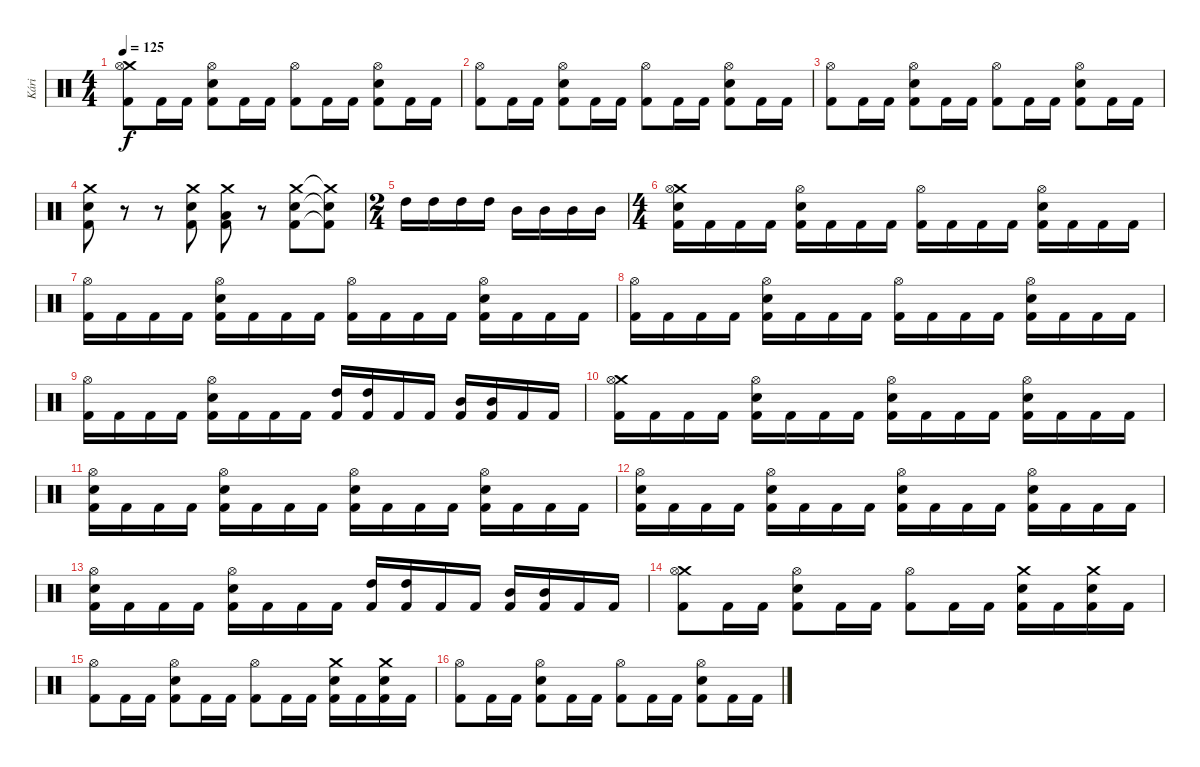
\track ("Kári" "Kári") {instrument percussion}
\staff {score}
\articulation defaults
\ts (4 4)
\tempo 125
\clef neutral
\ks c
("Crash medium (hit)" "Hi-Hat (open)" "Kick (hit) 2").8{dy f} "Kick (hit) 2".16 "Kick (hit) 2".16 ("Hi-Hat (open)" "Snare (hit) 2" "Kick (hit) 2").8 "Kick (hit) 2".16 "Kick (hit) 2".16 ("Hi-Hat (open)" "Kick (hit) 2").8 "Kick (hit) 2".16 "Kick (hit) 2".16 ("Hi-Hat (open)" "Snare (hit) 2" "Kick (hit) 2").8 "Kick (hit) 2".16 "Kick (hit) 2".16 |
("Hi-Hat (open)" "Kick (hit) 2").8 "Kick (hit) 2".16 "Kick (hit) 2".16 ("Hi-Hat (open)" "Snare (hit) 2" "Kick (hit) 2").8 "Kick (hit) 2".16 "Kick (hit) 2".16 ("Hi-Hat (open)" "Kick (hit) 2").8 "Kick (hit) 2".16 "Kick (hit) 2".16 ("Hi-Hat (open)" "Snare (hit) 2" "Kick (hit) 2").8 "Kick (hit) 2".16 "Kick (hit) 2".16 |
("Hi-Hat (open)" "Kick (hit) 2").8 "Kick (hit) 2".16 "Kick (hit) 2".16 ("Hi-Hat (open)" "Snare (hit) 2" "Kick (hit) 2").8 "Kick (hit) 2".16 "Kick (hit) 2".16 ("Hi-Hat (open)" "Kick (hit) 2").8 "Kick (hit) 2".16 "Kick (hit) 2".16 ("Hi-Hat (open)" "Snare (hit) 2" "Kick (hit) 2").8 "Kick (hit) 2".16 "Kick (hit) 2".16 |
("Crash medium (hit)" "Snare (hit) 2" "Kick (hit) 2").8 r.8 r.8 ("Crash medium (hit)" "Snare (hit) 2" "Kick (hit) 2").8 ("Crash medium (hit)" "Low Tom (hit)" "Kick (hit) 2").8 r.8 ("Crash medium (hit)" "Snare (hit) 2" "Kick (hit) 2").8 ("Crash medium (hit)"{t} "Snare (hit)"{t} "Kick (hit) 2"{t}).8 |
\ts (2 4)
"High Tom (hit)".16 "High Tom (hit)".16 "High Tom (hit)".16 "High Tom (hit)".16 "Mid Tom (hit)".16 "Mid Tom (hit)".16 "Mid Tom (hit)".16 "Mid Tom (hit)".16 |
\ts (4 4)
("Crash medium (hit)" "Hi-Hat (open)" "Snare (hit) 2" "Kick (hit) 2").16 "Kick (hit) 2".16 "Kick (hit) 2".16 "Kick (hit) 2".16 ("Hi-Hat (open)" "Snare (hit) 2" "Kick (hit) 2").16 "Kick (hit) 2".16 "Kick (hit) 2".16 "Kick (hit) 2".16 ("Hi-Hat (open)" "Kick (hit) 2").16 "Kick (hit) 2".16 "Kick (hit) 2".16 "Kick (hit) 2".16 ("Hi-Hat (open)" "Snare (hit) 2" "Kick (hit) 2").16 "Kick (hit) 2".16 "Kick (hit) 2".16 "Kick (hit) 2".16 |
("Hi-Hat (open)" "Kick (hit) 2").16 "Kick (hit) 2".16 "Kick (hit) 2".16 "Kick (hit) 2".16 ("Hi-Hat (open)" "Snare (hit) 2" "Kick (hit) 2").16 "Kick (hit) 2".16 "Kick (hit) 2".16 "Kick (hit) 2".16 ("Hi-Hat (open)" "Kick (hit) 2").16 "Kick (hit) 2".16 "Kick (hit) 2".16 "Kick (hit) 2".16 ("Hi-Hat (open)" "Snare (hit) 2" "Kick (hit) 2").16 "Kick (hit) 2".16 "Kick (hit) 2".16 "Kick (hit) 2".16 |
("Hi-Hat (open)" "Kick (hit) 2").16 "Kick (hit) 2".16 "Kick (hit) 2".16 "Kick (hit) 2".16 ("Hi-Hat (open)" "Snare (hit) 2" "Kick (hit) 2").16 "Kick (hit) 2".16 "Kick (hit) 2".16 "Kick (hit) 2".16 ("Hi-Hat (open)" "Kick (hit) 2").16 "Kick (hit) 2".16 "Kick (hit) 2".16 "Kick (hit) 2".16 ("Hi-Hat (open)" "Snare (hit) 2" "Kick (hit) 2").16 "Kick (hit) 2".16 "Kick (hit) 2".16 "Kick (hit) 2".16 |
("Hi-Hat (open)" "Kick (hit) 2").16 "Kick (hit) 2".16 "Kick (hit) 2".16 "Kick (hit) 2".16 ("Hi-Hat (open)" "Snare (hit) 2" "Kick (hit) 2").16 "Kick (hit) 2".16 "Kick (hit) 2".16 "Kick (hit) 2".16 ("High Tom (hit)" "Kick (hit) 2").16 ("High Tom (hit)" "Kick (hit) 2").16 "Kick (hit) 2".16 "Kick (hit) 2".16 ("Mid Tom (hit)" "Kick (hit) 2").16 ("Mid Tom (hit)" "Kick (hit) 2").16 "Kick (hit) 2".16 "Kick (hit) 2".16 |
("Crash medium (hit)" "Hi-Hat (open)" "Kick (hit) 2").16 "Kick (hit) 2".16 "Kick (hit) 2".16 "Kick (hit) 2".16 ("Hi-Hat (open)" "Snare (hit) 2" "Kick (hit) 2").16 "Kick (hit) 2".16 "Kick (hit) 2".16 "Kick (hit) 2".16 ("Hi-Hat (open)" "Snare (hit) 2" "Kick (hit) 2").16 "Kick (hit) 2".16 "Kick (hit) 2".16 "Kick (hit) 2".16 ("Hi-Hat (open)" "Snare (hit) 2" "Kick (hit) 2").16 "Kick (hit) 2".16 "Kick (hit) 2".16 "Kick (hit) 2".16 |
("Hi-Hat (open)" "Snare (hit) 2" "Kick (hit) 2").16 "Kick (hit) 2".16 "Kick (hit) 2".16 "Kick (hit) 2".16 ("Hi-Hat (open)" "Snare (hit) 2" "Kick (hit) 2").16 "Kick (hit) 2".16 "Kick (hit) 2".16 "Kick (hit) 2".16 ("Hi-Hat (open)" "Snare (hit) 2" "Kick (hit) 2").16 "Kick (hit) 2".16 "Kick (hit) 2".16 "Kick (hit) 2".16 ("Hi-Hat (open)" "Snare (hit) 2" "Kick (hit) 2").16 "Kick (hit) 2".16 "Kick (hit) 2".16 "Kick (hit) 2".16 |
("Hi-Hat (open)" "Snare (hit) 2" "Kick (hit) 2").16 "Kick (hit) 2".16 "Kick (hit) 2".16 "Kick (hit) 2".16 ("Hi-Hat (open)" "Snare (hit) 2" "Kick (hit) 2").16 "Kick (hit) 2".16 "Kick (hit) 2".16 "Kick (hit) 2".16 ("Hi-Hat (open)" "Snare (hit) 2" "Kick (hit) 2").16 "Kick (hit) 2".16 "Kick (hit) 2".16 "Kick (hit) 2".16 ("Hi-Hat (open)" "Snare (hit) 2" "Kick (hit) 2").16 "Kick (hit) 2".16 "Kick (hit) 2".16 "Kick (hit) 2".16 |
("Hi-Hat (open)" "Snare (hit) 2" "Kick (hit) 2").16 "Kick (hit) 2".16 "Kick (hit) 2".16 "Kick (hit) 2".16 ("Hi-Hat (open)" "Snare (hit) 2" "Kick (hit) 2").16 "Kick (hit) 2".16 "Kick (hit) 2".16 "Kick (hit) 2".16 ("High Tom (hit)" "Kick (hit) 2").16 ("High Tom (hit)" "Kick (hit) 2").16 "Kick (hit) 2".16 "Kick (hit) 2".16 ("Mid Tom (hit)" "Kick (hit) 2").16 ("Mid Tom (hit)" "Kick (hit) 2").16 "Kick (hit) 2".16 "Kick (hit) 2".16 |
("Crash medium (hit)" "Hi-Hat (open)" "Kick (hit) 2").8 "Kick (hit) 2".16 "Kick (hit) 2".16 ("Hi-Hat (open)" "Snare (hit) 2" "Kick (hit) 2").8 "Kick (hit) 2".16 "Kick (hit) 2".16 ("Hi-Hat (open)" "Kick (hit) 2").8 "Kick (hit) 2".16 "Kick (hit) 2".16 ("Crash medium (hit)" "Snare (hit) 2" "Kick (hit) 2").16 "Kick (hit) 2".16 ("Crash medium (hit)" "Snare (hit) 2" "Kick (hit) 2").16 "Kick (hit) 2".16 |
("Hi-Hat (open)" "Kick (hit) 2").8 "Kick (hit) 2".16 "Kick (hit) 2".16 ("Hi-Hat (open)" "Snare (hit) 2" "Kick (hit) 2").8 "Kick (hit) 2".16 "Kick (hit) 2".16 ("Hi-Hat (open)" "Kick (hit) 2").8 "Kick (hit) 2".16 "Kick (hit) 2".16 ("Crash medium (hit)" "Snare (hit) 2" "Kick (hit) 2").16 "Kick (hit) 2".16 ("Crash medium (hit)" "Snare (hit) 2" "Kick (hit) 2").16 "Kick (hit) 2".16 |
("Hi-Hat (open)" "Kick (hit) 2").8 "Kick (hit) 2".16 "Kick (hit) 2".16 ("Hi-Hat (open)" "Snare (hit) 2" "Kick (hit) 2").8 "Kick (hit) 2".16 "Kick (hit) 2".16 ("Hi-Hat (open)" "Kick (hit) 2").8 "Kick (hit) 2".16 "Kick (hit) 2".16 ("Snare (hit) 2" "Hi-Hat (open)" "Kick (hit) 2").8 "Kick (hit) 2".16 "Kick (hit) 2".16
